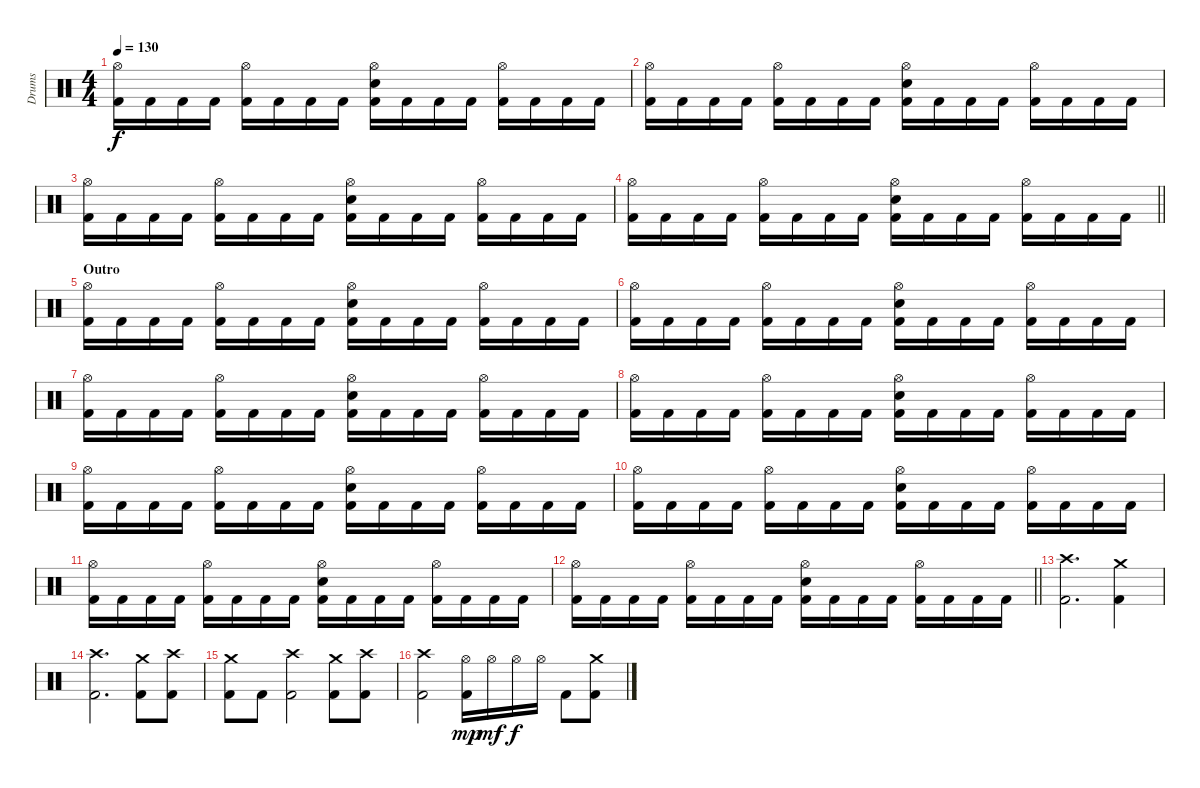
\track ("Drums" "Drums") {instrument percussion}
\staff {score}
\articulation defaults
\ts (4 4)
\tempo 130
\clef neutral
\ks c
("Hi-Hat (open)" "Kick (hit) 2").16{dy f} "Kick (hit) 2".16 "Kick (hit) 2".16 "Kick (hit) 2".16 ("Hi-Hat (open)" "Kick (hit) 2").16 "Kick (hit) 2".16 "Kick (hit) 2".16 "Kick (hit) 2".16 ("Hi-Hat (open)" "Electric Snare (hit)" "Kick (hit) 2").16 "Kick (hit) 2".16 "Kick (hit) 2".16 "Kick (hit) 2".16 ("Hi-Hat (open)" "Kick (hit) 2").16 "Kick (hit) 2".16 "Kick (hit) 2".16 "Kick (hit) 2".16 |
("Hi-Hat (open)" "Kick (hit) 2").16 "Kick (hit) 2".16 "Kick (hit) 2".16 "Kick (hit) 2".16 ("Hi-Hat (open)" "Kick (hit) 2").16 "Kick (hit) 2".16 "Kick (hit) 2".16 "Kick (hit) 2".16 ("Hi-Hat (open)" "Electric Snare (hit)" "Kick (hit) 2").16 "Kick (hit) 2".16 "Kick (hit) 2".16 "Kick (hit) 2".16 ("Hi-Hat (open)" "Kick (hit) 2").16 "Kick (hit) 2".16 "Kick (hit) 2".16 "Kick (hit) 2".16 |
("Hi-Hat (open)" "Kick (hit) 2").16 "Kick (hit) 2".16 "Kick (hit) 2".16 "Kick (hit) 2".16 ("Hi-Hat (open)" "Kick (hit) 2").16 "Kick (hit) 2".16 "Kick (hit) 2".16 "Kick (hit) 2".16 ("Hi-Hat (open)" "Electric Snare (hit)" "Kick (hit) 2").16 "Kick (hit) 2".16 "Kick (hit) 2".16 "Kick (hit) 2".16 ("Hi-Hat (open)" "Kick (hit) 2").16 "Kick (hit) 2".16 "Kick (hit) 2".16 "Kick (hit) 2".16 |
\barLineRight lightlight
("Hi-Hat (open)" "Kick (hit) 2").16 "Kick (hit) 2".16 "Kick (hit) 2".16 "Kick (hit) 2".16 ("Hi-Hat (open)" "Kick (hit) 2").16 "Kick (hit) 2".16 "Kick (hit) 2".16 "Kick (hit) 2".16 ("Hi-Hat (open)" "Electric Snare (hit)" "Kick (hit) 2").16 "Kick (hit) 2".16 "Kick (hit) 2".16 "Kick (hit) 2".16 ("Hi-Hat (open)" "Kick (hit) 2").16 "Kick (hit) 2".16 "Kick (hit) 2".16 "Kick (hit) 2".16 |
\section ("" "Outro")
("Hi-Hat (open)" "Kick (hit) 2").16 "Kick (hit) 2".16 "Kick (hit) 2".16 "Kick (hit) 2".16 ("Hi-Hat (open)" "Kick (hit) 2").16 "Kick (hit) 2".16 "Kick (hit) 2".16 "Kick (hit) 2".16 ("Hi-Hat (open)" "Electric Snare (hit)" "Kick (hit) 2").16 "Kick (hit) 2".16 "Kick (hit) 2".16 "Kick (hit) 2".16 ("Hi-Hat (open)" "Kick (hit) 2").16 "Kick (hit) 2".16 "Kick (hit) 2".16 "Kick (hit) 2".16 |
("Hi-Hat (open)" "Kick (hit) 2").16 "Kick (hit) 2".16 "Kick (hit) 2".16 "Kick (hit) 2".16 ("Hi-Hat (open)" "Kick (hit) 2").16 "Kick (hit) 2".16 "Kick (hit) 2".16 "Kick (hit) 2".16 ("Hi-Hat (open)" "Electric Snare (hit)" "Kick (hit) 2").16 "Kick (hit) 2".16 "Kick (hit) 2".16 "Kick (hit) 2".16 ("Hi-Hat (open)" "Kick (hit) 2").16 "Kick (hit) 2".16 "Kick (hit) 2".16 "Kick (hit) 2".16 |
("Hi-Hat (open)" "Kick (hit) 2").16 "Kick (hit) 2".16 "Kick (hit) 2".16 "Kick (hit) 2".16 ("Hi-Hat (open)" "Kick (hit) 2").16 "Kick (hit) 2".16 "Kick (hit) 2".16 "Kick (hit) 2".16 ("Hi-Hat (open)" "Electric Snare (hit)" "Kick (hit) 2").16 "Kick (hit) 2".16 "Kick (hit) 2".16 "Kick (hit) 2".16 ("Hi-Hat (open)" "Kick (hit) 2").16 "Kick (hit) 2".16 "Kick (hit) 2".16 "Kick (hit) 2".16 |
("Hi-Hat (open)" "Kick (hit) 2").16 "Kick (hit) 2".16 "Kick (hit) 2".16 "Kick (hit) 2".16 ("Hi-Hat (open)" "Kick (hit) 2").16 "Kick (hit) 2".16 "Kick (hit) 2".16 "Kick (hit) 2".16 ("Hi-Hat (open)" "Electric Snare (hit)" "Kick (hit) 2").16 "Kick (hit) 2".16 "Kick (hit) 2".16 "Kick (hit) 2".16 ("Hi-Hat (open)" "Kick (hit) 2").16 "Kick (hit) 2".16 "Kick (hit) 2".16 "Kick (hit) 2".16 |
("Hi-Hat (open)" "Kick (hit) 2").16 "Kick (hit) 2".16 "Kick (hit) 2".16 "Kick (hit) 2".16 ("Hi-Hat (open)" "Kick (hit) 2").16 "Kick (hit) 2".16 "Kick (hit) 2".16 "Kick (hit) 2".16 ("Hi-Hat (open)" "Electric Snare (hit)" "Kick (hit) 2").16 "Kick (hit) 2".16 "Kick (hit) 2".16 "Kick (hit) 2".16 ("Hi-Hat (open)" "Kick (hit) 2").16 "Kick (hit) 2".16 "Kick (hit) 2".16 "Kick (hit) 2".16 |
("Hi-Hat (open)" "Kick (hit) 2").16 "Kick (hit) 2".16 "Kick (hit) 2".16 "Kick (hit) 2".16 ("Hi-Hat (open)" "Kick (hit) 2").16 "Kick (hit) 2".16 "Kick (hit) 2".16 "Kick (hit) 2".16 ("Hi-Hat (open)" "Electric Snare (hit)" "Kick (hit) 2").16 "Kick (hit) 2".16 "Kick (hit) 2".16 "Kick (hit) 2".16 ("Hi-Hat (open)" "Kick (hit) 2").16 "Kick (hit) 2".16 "Kick (hit) 2".16 "Kick (hit) 2".16 |
("Hi-Hat (open)" "Kick (hit) 2").16 "Kick (hit) 2".16 "Kick (hit) 2".16 "Kick (hit) 2".16 ("Hi-Hat (open)" "Kick (hit) 2").16 "Kick (hit) 2".16 "Kick (hit) 2".16 "Kick (hit) 2".16 ("Hi-Hat (open)" "Electric Snare (hit)" "Kick (hit) 2").16 "Kick (hit) 2".16 "Kick (hit) 2".16 "Kick (hit) 2".16 ("Hi-Hat (open)" "Kick (hit) 2").16 "Kick (hit) 2".16 "Kick (hit) 2".16 "Kick (hit) 2".16 |
\barLineRight lightlight
("Hi-Hat (open)" "Kick (hit) 2").16 "Kick (hit) 2".16 "Kick (hit) 2".16 "Kick (hit) 2".16 ("Hi-Hat (open)" "Kick (hit) 2").16 "Kick (hit) 2".16 "Kick (hit) 2".16 "Kick (hit) 2".16 ("Hi-Hat (open)" "Electric Snare (hit)" "Kick (hit) 2").16 "Kick (hit) 2".16 "Kick (hit) 2".16 "Kick (hit) 2".16 ("Hi-Hat (open)" "Kick (hit) 2").16 "Kick (hit) 2".16 "Kick (hit) 2".16 "Kick (hit) 2".16 |
("Crash high (hit)" "Kick (hit) 2").2{d} ("Crash medium (hit)" "Kick (hit) 2").4 |
("Crash high (hit)" "Kick (hit) 2").2{d} ("Crash medium (hit)" "Kick (hit) 2").8 ("Crash high (hit)" "Kick (hit) 2").8 |
("Crash medium (hit)" "Kick (hit) 2").8 "Kick (hit) 2".8 ("Crash high (hit)" "Kick (hit) 2").2 ("Crash medium (hit)" "Kick (hit) 2").8 ("Crash high (hit)" "Kick (hit) 2").8 |
("Crash high (hit)" "Kick (hit) 2").2 ("Hi-Hat (open)" "Kick (hit) 2").16{dy mp} "Hi-Hat (open)".16{dy mf} "Hi-Hat (open)".16{dy f} "Hi-Hat (open)".16 "Kick (hit) 2".8 ("Crash medium (hit)" "Kick (hit) 2").8
